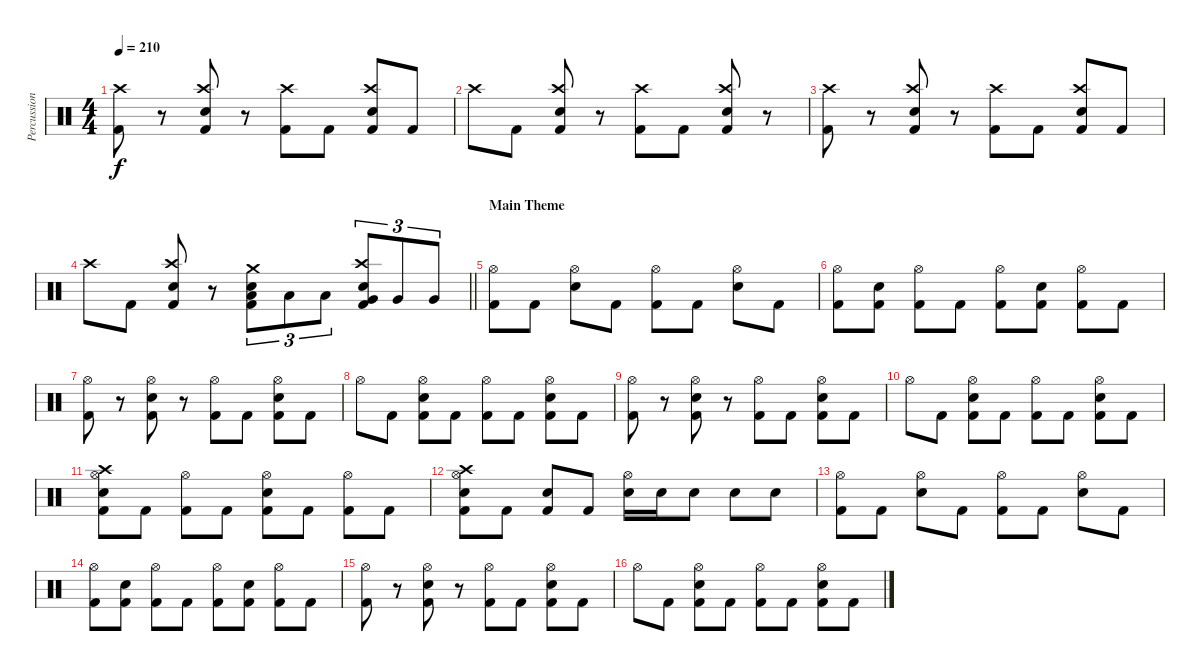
\track ("Percussion" "Percussion") {instrument percussion}
\staff {score}
\articulation defaults
\ts (4 4)
\tempo 210
\clef neutral
\ks c
("Kick (hit) 2" "Crash high (hit)").8{dy f} r.8 ("Kick (hit) 2" "Electric Snare (hit)" "Crash high (hit)").8 r.8 ("Kick (hit) 2" "Crash high (hit)").8 "Kick (hit) 2".8 ("Kick (hit) 2" "Electric Snare (hit)" "Crash high (hit)").8 "Kick (hit) 2".8 |
"Crash high (hit)".8 "Kick (hit) 2".8 ("Kick (hit) 2" "Electric Snare (hit)" "Crash high (hit)").8 r.8 ("Kick (hit) 2" "Crash high (hit)").8 "Kick (hit) 2".8 ("Kick (hit) 2" "Electric Snare (hit)" "Crash high (hit)").8 r.8 |
("Kick (hit) 2" "Crash high (hit)").8 r.8 ("Kick (hit) 2" "Electric Snare (hit)" "Crash high (hit)").8 r.8 ("Kick (hit) 2" "Crash high (hit)").8 "Kick (hit) 2".8 ("Kick (hit) 2" "Electric Snare (hit)" "Crash high (hit)").8 "Kick (hit) 2".8 |
\barLineRight lightlight "Crash high (hit)".8 "Kick (hit) 2".8
("Kick (hit) 2" "Electric Snare (hit)" "Crash high (hit)").8 r.8 ("Kick (hit) 2" "Low Tom (hit)" "Crash medium (hit)" "Electric Snare (hit)").8{tu (3 2)} "Low Tom (hit)".8{tu (3 2)} "Low Tom (hit)".8{tu (3 2)} ("Kick (hit) 2" "Very Low Tom (hit)" "Crash high (hit)" "Electric Snare (hit)").8{tu (3 2)} "Very Low Tom (hit)".8{tu (3 2)} "Very Low Tom (hit)".8{tu (3 2)} |
\section ("" "Main Theme")
("Kick (hit) 2" "Hi-Hat (open)").8 "Kick (hit) 2".8 ("Electric Snare (hit)" "Hi-Hat (open)").8 "Kick (hit) 2".8 ("Kick (hit) 2" "Hi-Hat (open)").8 "Kick (hit) 2".8 ("Electric Snare (hit)" "Hi-Hat (open)").8 "Kick (hit) 2".8 |
("Kick (hit) 2" "Hi-Hat (open)").8 ("Kick (hit) 2" "Electric Snare (hit)").8 ("Kick (hit) 2" "Hi-Hat (open)").8 "Kick (hit) 2".8 ("Kick (hit) 2" "Hi-Hat (open)").8 ("Kick (hit) 2" "Electric Snare (hit)").8 ("Kick (hit) 2" "Hi-Hat (open)").8 "Kick (hit) 2".8 |
("Kick (hit) 2" "Hi-Hat (open)").8 r.8 ("Kick (hit) 2" "Electric Snare (hit)" "Hi-Hat (open)").8 r.8 ("Kick (hit) 2" "Hi-Hat (open)").8 "Kick (hit) 2".8 ("Kick (hit) 2" "Electric Snare (hit)" "Hi-Hat (open)").8 "Kick (hit) 2".8 |
"Hi-Hat (open)".8 "Kick (hit) 2".8 ("Kick (hit) 2" "Electric Snare (hit)" "Hi-Hat (open)").8 "Kick (hit) 2".8 ("Kick (hit) 2" "Hi-Hat (open)").8 "Kick (hit) 2".8 ("Kick (hit) 2" "Electric Snare (hit)" "Hi-Hat (open)").8 "Kick (hit) 2".8 |
("Kick (hit) 2" "Hi-Hat (open)").8 r.8 ("Kick (hit) 2" "Electric Snare (hit)" "Hi-Hat (open)").8 r.8 ("Kick (hit) 2" "Hi-Hat (open)").8 "Kick (hit) 2".8 ("Kick (hit) 2" "Electric Snare (hit)" "Hi-Hat (open)").8 "Kick (hit) 2".8 |
"Hi-Hat (open)".8 "Kick (hit) 2".8 ("Kick (hit) 2" "Electric Snare (hit)" "Hi-Hat (open)").8 "Kick (hit) 2".8 ("Kick (hit) 2" "Hi-Hat (open)").8 "Kick (hit) 2".8 ("Kick (hit) 2" "Electric Snare (hit)" "Hi-Hat (open)").8 "Kick (hit) 2".8 |
("Kick (hit) 2" "Electric Snare (hit)" "Hi-Hat (open)" "Crash high (hit)").8 "Kick (hit) 2".8 ("Kick (hit) 2" "Hi-Hat (open)").8 "Kick (hit) 2".8 ("Kick (hit) 2" "Electric Snare (hit)" "Hi-Hat (open)").8 "Kick (hit) 2".8 ("Kick (hit) 2" "Hi-Hat (open)").8 "Kick (hit) 2".8 |
("Kick (hit) 2" "Electric Snare (hit)" "Hi-Hat (open)" "Crash high (hit)").8 "Kick (hit) 2".8 ("Kick (hit) 2" "Electric Snare (hit)").8 "Kick (hit) 2".8 ("Electric Snare (hit)" "Hi-Hat (open)").16 "Electric Snare (hit)".16 "Electric Snare (hit)".8 "Electric Snare (hit)".8 "Electric Snare (hit)".8 |
("Kick (hit) 2" "Hi-Hat (open)").8 "Kick (hit) 2".8 ("Electric Snare (hit)" "Hi-Hat (open)").8 "Kick (hit) 2".8 ("Kick (hit) 2" "Hi-Hat (open)").8 "Kick (hit) 2".8 ("Electric Snare (hit)" "Hi-Hat (open)").8 "Kick (hit) 2".8 |
("Kick (hit) 2" "Hi-Hat (open)").8 ("Kick (hit) 2" "Electric Snare (hit)").8 ("Kick (hit) 2" "Hi-Hat (open)").8 "Kick (hit) 2".8 ("Kick (hit) 2" "Hi-Hat (open)").8 ("Kick (hit) 2" "Electric Snare (hit)").8 ("Kick (hit) 2" "Hi-Hat (open)").8 "Kick (hit) 2".8 |
("Kick (hit) 2" "Hi-Hat (open)").8 r.8 ("Kick (hit) 2" "Electric Snare (hit)" "Hi-Hat (open)").8 r.8 ("Kick (hit) 2" "Hi-Hat (open)").8 "Kick (hit) 2".8 ("Kick (hit) 2" "Electric Snare (hit)" "Hi-Hat (open)").8 "Kick (hit) 2".8 |
"Hi-Hat (open)".8 "Kick (hit) 2".8 ("Kick (hit) 2" "Electric Snare (hit)" "Hi-Hat (open)").8 "Kick (hit) 2".8 ("Kick (hit) 2" "Hi-Hat (open)").8 "Kick (hit) 2".8 ("Kick (hit) 2" "Electric Snare (hit)" "Hi-Hat (open)").8 "Kick (hit) 2".8
